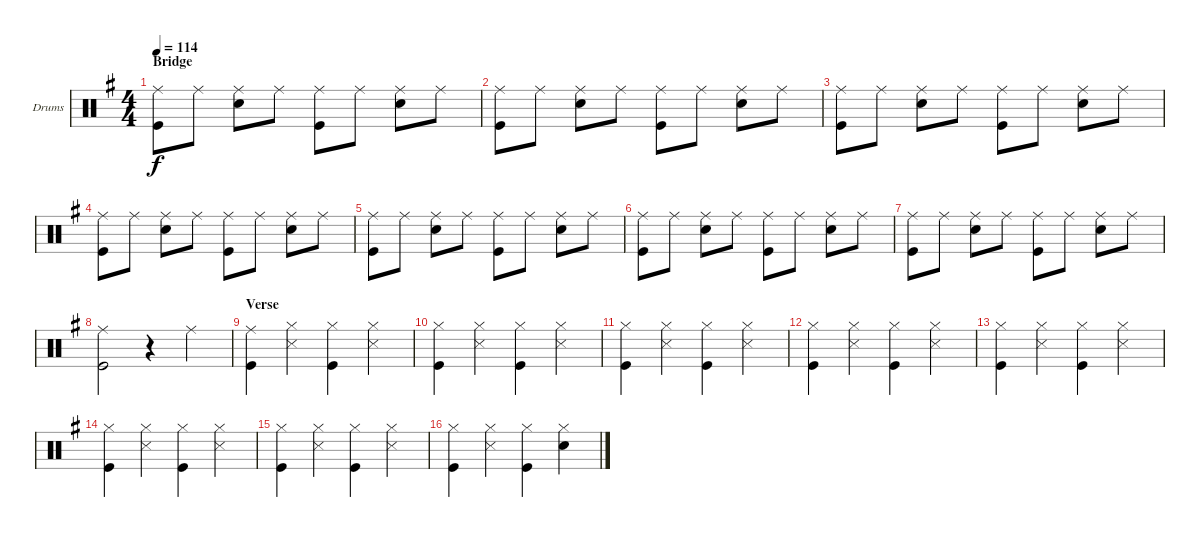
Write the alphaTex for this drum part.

\bracketExtendMode groupsimilarinstruments
\firstSystemTrackNameOrientation horizontal
\otherSystemsTrackNameOrientation horizontal
\track ("Drumkit" "Drums") {instrument percussion}
\staff {score}
\articulation defaults
\ts (4 4)
\section ("" "Bridge")
\tempo 114
\clef neutral
\scale
1.04288
\ks g
("Ride (middle)" "Kick (hit)").8{dy f} "Ride (middle)".8 ("Ride (middle)" "Snare (hit) 2").8 "Ride (middle)".8 ("Ride (middle)" "Kick (hit)").8 "Ride (middle)".8 ("Ride (middle)" "Snare (hit) 2").8 "Ride (middle)".8 |
\scale
0.957125 ("Ride (middle)" "Kick (hit)").8 "Ride (middle)".8 ("Ride (middle)" "Snare (hit) 2").8 "Ride (middle)".8 ("Ride (middle)" "Kick (hit)").8 "Ride (middle)".8 ("Ride (middle)" "Snare (hit) 2").8 "Ride (middle)".8 |
\scale
1.04288 ("Ride (middle)" "Kick (hit)").8 "Ride (middle)".8 ("Ride (middle)" "Snare (hit) 2").8 "Ride (middle)".8 ("Ride (middle)" "Kick (hit)").8 "Ride (middle)".8 ("Ride (middle)" "Snare (hit) 2").8 "Ride (middle)".8 |
\scale
0.957125 ("Ride (middle)" "Kick (hit)").8 "Ride (middle)".8 ("Ride (middle)" "Snare (hit) 2").8 "Ride (middle)".8 ("Ride (middle)" "Kick (hit)").8 "Ride (middle)".8 ("Ride (middle)" "Snare (hit) 2").8 "Ride (middle)".8 |
\scale
1.04288 ("Ride (middle)" "Kick (hit)").8 "Ride (middle)".8 ("Ride (middle)" "Snare (hit) 2").8 "Ride (middle)".8 ("Ride (middle)" "Kick (hit)").8 "Ride (middle)".8 ("Ride (middle)" "Snare (hit) 2").8 "Ride (middle)".8 |
\scale
0.957125 ("Ride (middle)" "Kick (hit)").8 "Ride (middle)".8 ("Ride (middle)" "Snare (hit) 2").8 "Ride (middle)".8 ("Ride (middle)" "Kick (hit)").8 "Ride (middle)".8 ("Ride (middle)" "Snare (hit) 2").8 "Ride (middle)".8 |
\scale
1.04288 ("Ride (middle)" "Kick (hit)").8 "Ride (middle)".8 ("Ride (middle)" "Snare (hit) 2").8 "Ride (middle)".8 ("Ride (middle)" "Kick (hit)").8 "Ride (middle)".8 ("Ride (middle)" "Snare (hit) 2").8 "Ride (middle)".8 |
\scale
0.957125 ("Ride (middle)" "Kick (hit)").2 r.4 "Ride (middle)".4 |
\section ("" "Verse")
\scale
1.04288 ("Ride (middle)" "Kick (hit)").4 ("Hi-Hat (closed)" "Snare (side stick) 3").4 ("Hi-Hat (closed)" "Kick (hit)").4 ("Hi-Hat (closed)" "Snare (side stick) 3").4 |
\scale
0.957125 ("Hi-Hat (closed)" "Kick (hit)").4 ("Hi-Hat (closed)" "Snare (side stick) 3").4 ("Hi-Hat (closed)" "Kick (hit)").4 ("Hi-Hat (closed)" "Snare (side stick) 3").4 |
\scale
1.04288 ("Hi-Hat (closed)" "Kick (hit)").4 ("Hi-Hat (closed)" "Snare (side stick) 3").4 ("Hi-Hat (closed)" "Kick (hit)").4 ("Hi-Hat (closed)" "Snare (side stick) 3").4 |
\scale
0.957125 ("Hi-Hat (closed)" "Kick (hit)").4 ("Hi-Hat (closed)" "Snare (side stick) 3").4 ("Hi-Hat (closed)" "Kick (hit)").4 ("Hi-Hat (closed)" "Snare (side stick) 3").4 |
\scale
1.04288 ("Hi-Hat (closed)" "Kick (hit)").4 ("Hi-Hat (closed)" "Snare (side stick) 3").4 ("Hi-Hat (closed)" "Kick (hit)").4 ("Hi-Hat (closed)" "Snare (side stick) 3").4 |
\scale
0.957125 ("Hi-Hat (closed)" "Kick (hit)").4 ("Hi-Hat (closed)" "Snare (side stick) 3").4 ("Hi-Hat (closed)" "Kick (hit)").4 ("Hi-Hat (closed)" "Snare (side stick) 3").4 |
\scale
1.04288 ("Hi-Hat (closed)" "Kick (hit)").4 ("Hi-Hat (closed)" "Snare (side stick) 3").4 ("Hi-Hat (closed)" "Kick (hit)").4 ("Hi-Hat (closed)" "Snare (side stick) 3").4 |
\scale
0.957125 ("Hi-Hat (closed)" "Kick (hit)").4 ("Hi-Hat (closed)" "Snare (side stick) 3").4 ("Hi-Hat (closed)" "Kick (hit)").4 ("Hi-Hat (closed)" "Snare (hit) 2").4
